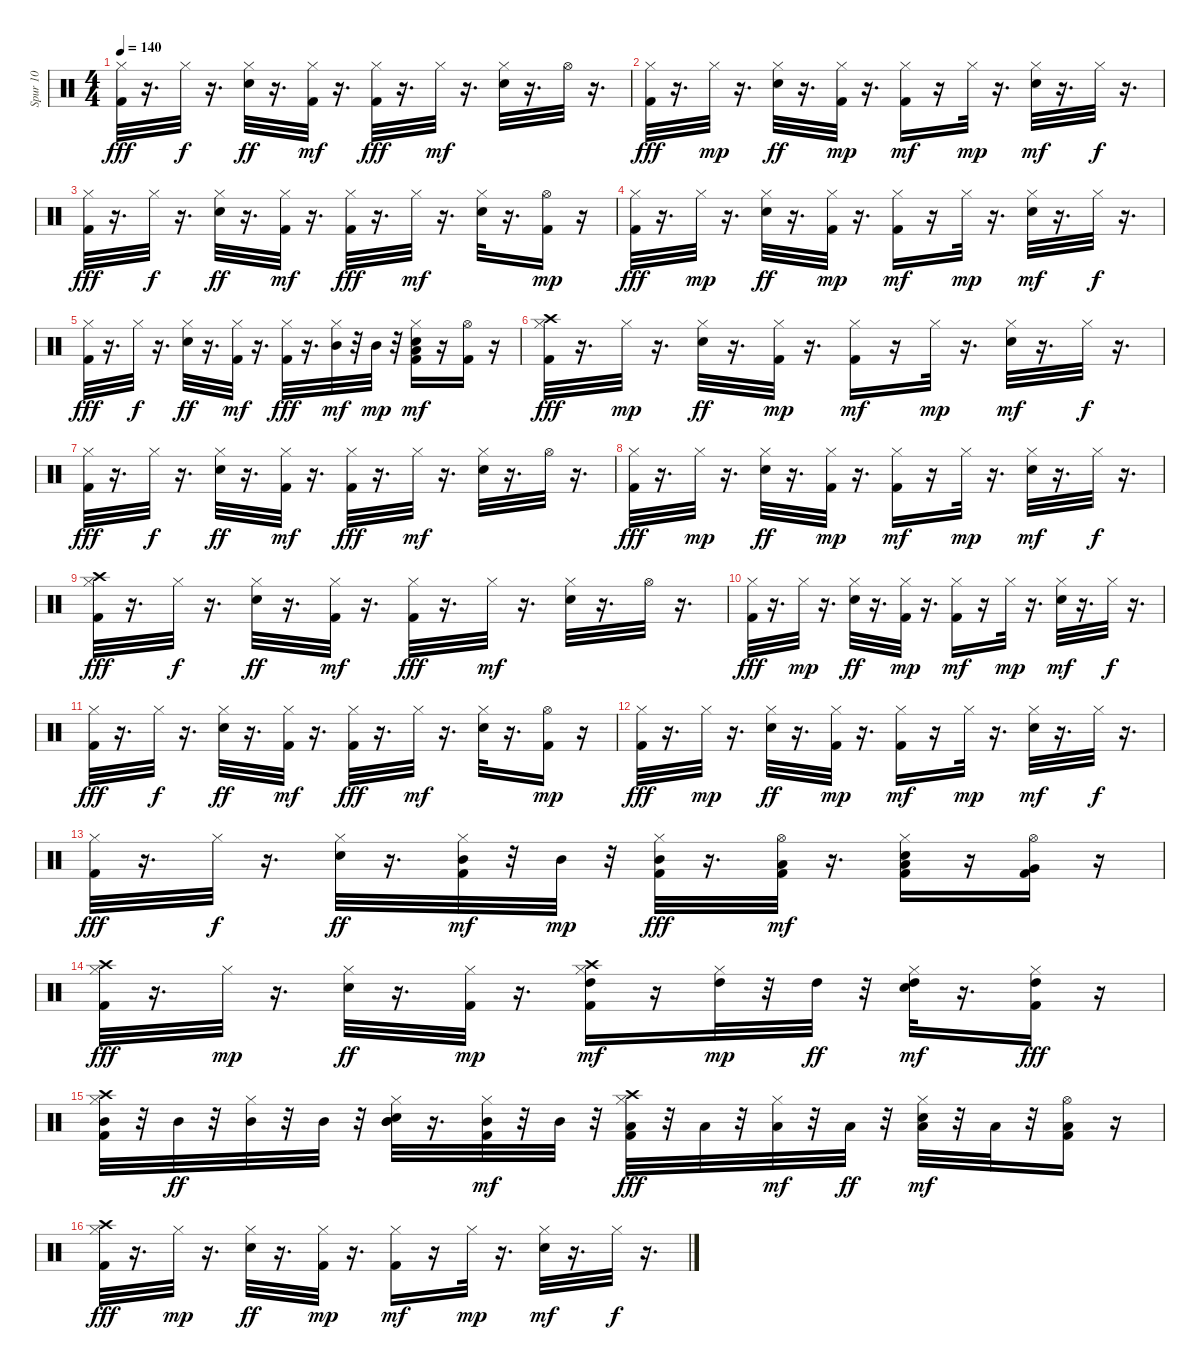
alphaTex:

\track ("Spur 10" "Spur 10") {instrument percussion}
\staff {score}
\articulation defaults
\ts (4 4)
\tempo 140
\clef neutral
\ks c
("Hi-Hat (closed)" "Kick (hit) 2").32{dy fff} r.16{d} "Hi-Hat (closed)".32{dy f} r.16{d} ("Hi-Hat (closed)" "Snare (hit) 2").32{dy ff} r.16{d} ("Kick (hit) 2" "Hi-Hat (closed)").32{dy mf} r.16{d} ("Hi-Hat (closed)" "Kick (hit) 2").32{dy fff} r.16{d} "Hi-Hat (closed)".32{dy mf} r.16{d} ("Snare (hit) 2" "Hi-Hat (closed)").32 r.16{d} "Hi-Hat (open)".32 r.16{d} |
("Hi-Hat (closed)" "Kick (hit) 2").32{dy fff} r.16{d} "Hi-Hat (closed)".32{dy mp} r.16{d} ("Hi-Hat (closed)" "Snare (hit) 2").32{dy ff} r.16{d} ("Kick (hit) 2" "Hi-Hat (closed)").32{dy mp} r.16{d} ("Kick (hit) 2" "Hi-Hat (closed)").16{dy mf} r.16 "Hi-Hat (closed)".32{dy mp} r.16{d} ("Snare (hit) 2" "Hi-Hat (closed)").32{dy mf} r.16{d} "Hi-Hat (closed)".32{dy f} r.16{d} |
("Hi-Hat (closed)" "Kick (hit) 2").32{dy fff} r.16{d} "Hi-Hat (closed)".32{dy f} r.16{d} ("Hi-Hat (closed)" "Snare (hit) 2").32{dy ff} r.16{d} ("Kick (hit) 2" "Hi-Hat (closed)").32{dy mf} r.16{d} ("Hi-Hat (closed)" "Kick (hit) 2").32{dy fff} r.16{d} "Hi-Hat (closed)".32{dy mf} r.16{d} ("Snare (hit) 2" "Hi-Hat (closed)").32 r.16{d} ("Hi-Hat (open)" "Kick (hit) 2").16{dy mp} r.16 |
("Hi-Hat (closed)" "Kick (hit) 2").32{dy fff} r.16{d} "Hi-Hat (closed)".32{dy mp} r.16{d} ("Hi-Hat (closed)" "Snare (hit) 2").32{dy ff} r.16{d} ("Kick (hit) 2" "Hi-Hat (closed)").32{dy mp} r.16{d} ("Kick (hit) 2" "Hi-Hat (closed)").16{dy mf} r.16 "Hi-Hat (closed)".32{dy mp} r.16{d} ("Snare (hit) 2" "Hi-Hat (closed)").32{dy mf} r.16{d} "Hi-Hat (closed)".32{dy f} r.16{d} |
("Hi-Hat (closed)" "Kick (hit) 2").32{dy fff} r.16{d} "Hi-Hat (closed)".32{dy f} r.16{d} ("Hi-Hat (closed)" "Snare (hit) 2").32{dy ff} r.16{d} ("Kick (hit) 2" "Hi-Hat (closed)").32{dy mf} r.16{d} ("Hi-Hat (closed)" "Kick (hit) 2").32{dy fff} r.16{d} ("Mid Tom (hit)" "Hi-Hat (closed)").32{dy mf} r.32 "Mid Tom (hit)".32{dy mp} r.32 ("Low Tom (hit)" "Kick (hit) 2" "Snare (hit) 2" "Hi-Hat (closed)").16{dy mf} r.16 ("Kick (hit) 2" "Hi-Hat (open)").16 r.16 |
("Crash high (hit)" "Hi-Hat (closed)" "Kick (hit) 2").32{dy fff} r.16{d} "Hi-Hat (closed)".32{dy mp} r.16{d} ("Hi-Hat (closed)" "Snare (hit) 2").32{dy ff} r.16{d} ("Kick (hit) 2" "Hi-Hat (closed)").32{dy mp} r.16{d} ("Kick (hit) 2" "Hi-Hat (closed)").16{dy mf} r.16 "Hi-Hat (closed)".32{dy mp} r.16{d} ("Snare (hit) 2" "Hi-Hat (closed)").32{dy mf} r.16{d} "Hi-Hat (closed)".32{dy f} r.16{d} |
("Hi-Hat (closed)" "Kick (hit) 2").32{dy fff} r.16{d} "Hi-Hat (closed)".32{dy f} r.16{d} ("Hi-Hat (closed)" "Snare (hit) 2").32{dy ff} r.16{d} ("Kick (hit) 2" "Hi-Hat (closed)").32{dy mf} r.16{d} ("Hi-Hat (closed)" "Kick (hit) 2").32{dy fff} r.16{d} "Hi-Hat (closed)".32{dy mf} r.16{d} ("Snare (hit) 2" "Hi-Hat (closed)").32 r.16{d} "Hi-Hat (open)".32 r.16{d} |
("Hi-Hat (closed)" "Kick (hit) 2").32{dy fff} r.16{d} "Hi-Hat (closed)".32{dy mp} r.16{d} ("Hi-Hat (closed)" "Snare (hit) 2").32{dy ff} r.16{d} ("Kick (hit) 2" "Hi-Hat (closed)").32{dy mp} r.16{d} ("Kick (hit) 2" "Hi-Hat (closed)").16{dy mf} r.16 "Hi-Hat (closed)".32{dy mp} r.16{d} ("Snare (hit) 2" "Hi-Hat (closed)").32{dy mf} r.16{d} "Hi-Hat (closed)".32{dy f} r.16{d} |
("Crash high (hit)" "Hi-Hat (closed)" "Kick (hit) 2").32{dy fff} r.16{d} "Hi-Hat (closed)".32{dy f} r.16{d} ("Hi-Hat (closed)" "Snare (hit) 2").32{dy ff} r.16{d} ("Kick (hit) 2" "Hi-Hat (closed)").32{dy mf} r.16{d} ("Hi-Hat (closed)" "Kick (hit) 2").32{dy fff} r.16{d} "Hi-Hat (closed)".32{dy mf} r.16{d} ("Snare (hit) 2" "Hi-Hat (closed)").32 r.16{d} "Hi-Hat (open)".32 r.16{d} |
("Hi-Hat (closed)" "Kick (hit) 2").32{dy fff} r.16{d} "Hi-Hat (closed)".32{dy mp} r.16{d} ("Hi-Hat (closed)" "Snare (hit) 2").32{dy ff} r.16{d} ("Kick (hit) 2" "Hi-Hat (closed)").32{dy mp} r.16{d} ("Kick (hit) 2" "Hi-Hat (closed)").16{dy mf} r.16 "Hi-Hat (closed)".32{dy mp} r.16{d} ("Snare (hit) 2" "Hi-Hat (closed)").32{dy mf} r.16{d} "Hi-Hat (closed)".32{dy f} r.16{d} |
("Hi-Hat (closed)" "Kick (hit) 2").32{dy fff} r.16{d} "Hi-Hat (closed)".32{dy f} r.16{d} ("Hi-Hat (closed)" "Snare (hit) 2").32{dy ff} r.16{d} ("Kick (hit) 2" "Hi-Hat (closed)").32{dy mf} r.16{d} ("Hi-Hat (closed)" "Kick (hit) 2").32{dy fff} r.16{d} "Hi-Hat (closed)".32{dy mf} r.16{d} ("Snare (hit) 2" "Hi-Hat (closed)").32 r.16{d} ("Hi-Hat (open)" "Kick (hit) 2").16{dy mp} r.16 |
("Hi-Hat (closed)" "Kick (hit) 2").32{dy fff} r.16{d} "Hi-Hat (closed)".32{dy mp} r.16{d} ("Hi-Hat (closed)" "Snare (hit) 2").32{dy ff} r.16{d} ("Kick (hit) 2" "Hi-Hat (closed)").32{dy mp} r.16{d} ("Kick (hit) 2" "Hi-Hat (closed)").16{dy mf} r.16 "Hi-Hat (closed)".32{dy mp} r.16{d} ("Snare (hit) 2" "Hi-Hat (closed)").32{dy mf} r.16{d} "Hi-Hat (closed)".32{dy f} r.16{d} |
("Hi-Hat (closed)" "Kick (hit) 2").32{dy fff} r.16{d} "Hi-Hat (closed)".32{dy f} r.16{d} ("Hi-Hat (closed)" "Snare (hit) 2").32{dy ff} r.16{d} ("Mid Tom (hit)" "Kick (hit) 2" "Hi-Hat (closed)").32{dy mf} r.32 "Mid Tom (hit)".32{dy mp} r.32 ("Mid Tom (hit)" "Hi-Hat (closed)" "Kick (hit) 2").32{dy fff} r.16{d} ("Low Tom (hit)" "Kick (hit) 2" "Hi-Hat (open)").32{dy mf} r.16{d} ("Low Tom (hit)" "Kick (hit) 2" "Snare (hit) 2" "Hi-Hat (closed)").16 r.16 ("Very Low Tom (hit)" "Kick (hit) 2" "Hi-Hat (open)").16 r.16 |
("Crash high (hit)" "Hi-Hat (closed)" "Kick (hit) 2").32{dy fff} r.16{d} "Hi-Hat (closed)".32{dy mp} r.16{d} ("Hi-Hat (closed)" "Snare (hit) 2").32{dy ff} r.16{d} ("Kick (hit) 2" "Hi-Hat (closed)").32{dy mp} r.16{d} ("Crash high (hit)" "High Tom (hit)" "Kick (hit) 2" "Hi-Hat (closed)").16{dy mf} r.16 ("High Tom (hit)" "Hi-Hat (closed)").32{dy mp} r.32 "High Tom (hit)".32{dy ff} r.32 ("High Tom (hit)" "Snare (hit) 2" "Hi-Hat (closed)").32{dy mf} r.16{d} ("High Tom (hit)" "Kick (hit) 2" "Hi-Hat (closed)").16{dy fff} r.16 |
("Crash high (hit)" "Mid Tom (hit)" "Hi-Hat (closed)" "Kick (hit) 2").32 r.32 "Mid Tom (hit)".32{dy ff} r.32 ("Mid Tom (hit)" "Hi-Hat (closed)").32 r.32 "Mid Tom (hit)".32 r.32 ("Mid Tom (hit)" "Mid Tom (hit)" "Hi-Hat (closed)" "Snare (hit) 2").32 r.16{d} ("Mid Tom (hit)" "Kick (hit) 2" "Hi-Hat (closed)").32{dy mf} r.32 "Mid Tom (hit)".32 r.32 ("Crash high (hit)" "Low Tom (hit)" "Hi-Hat (closed)" "Kick (hit) 2").32{dy fff} r.32 "Low Tom (hit)".32 r.32 ("Low Tom (hit)" "Hi-Hat (closed)").32{dy mf} r.32 "Low Tom (hit)".32{dy ff} r.32 ("Low Tom (hit)" "Snare (hit) 2" "Hi-Hat (closed)").32{dy mf} r.32 "Low Tom (hit)".32 r.32 ("Low Tom (hit)" "Kick (hit) 2" "Hi-Hat (open)").16 r.16 |
("Crash high (hit)" "Hi-Hat (closed)" "Kick (hit) 2").32{dy fff} r.16{d} "Hi-Hat (closed)".32{dy mp} r.16{d} ("Hi-Hat (closed)" "Snare (hit) 2").32{dy ff} r.16{d} ("Kick (hit) 2" "Hi-Hat (closed)").32{dy mp} r.16{d} ("Kick (hit) 2" "Hi-Hat (closed)").16{dy mf} r.16 "Hi-Hat (closed)".32{dy mp} r.16{d} ("Snare (hit) 2" "Hi-Hat (closed)").32{dy mf} r.16{d} "Hi-Hat (closed)".32{dy f} r.16{d}
